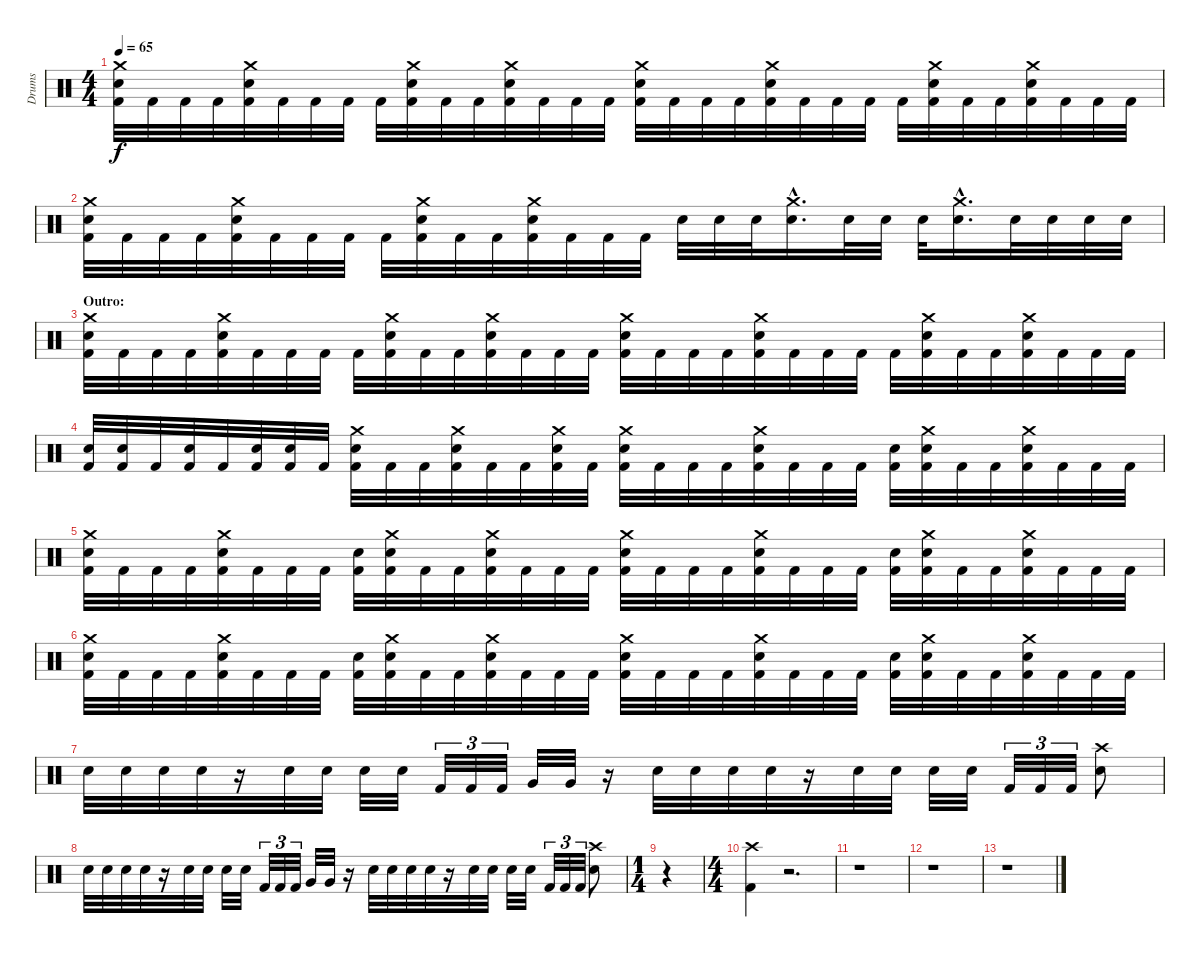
\track ("Drums" "Drums") {instrument percussion}
\staff {score}
\articulation defaults
\ts (4 4)
\tempo 65
\clef neutral
\ks c
("Crash medium (hit)" "Snare (hit) 2" "Kick (hit) 2").32{dy f} "Kick (hit) 2".32 "Kick (hit) 2".32 "Kick (hit) 2".32 ("Crash medium (hit)" "Snare (hit) 2" "Kick (hit) 2").32 "Kick (hit) 2".32 "Kick (hit) 2".32 "Kick (hit) 2".32 "Kick (hit) 2".32 ("Crash medium (hit)" "Snare (hit) 2" "Kick (hit) 2").32 "Kick (hit) 2".32 "Kick (hit) 2".32 ("Crash medium (hit)" "Snare (hit) 2" "Kick (hit) 2").32 "Kick (hit) 2".32 "Kick (hit) 2".32 "Kick (hit) 2".32 ("Crash medium (hit)" "Snare (hit) 2" "Kick (hit) 2").32 "Kick (hit) 2".32 "Kick (hit) 2".32 "Kick (hit) 2".32 ("Crash medium (hit)" "Snare (hit) 2" "Kick (hit) 2").32 "Kick (hit) 2".32 "Kick (hit) 2".32 "Kick (hit) 2".32 "Kick (hit) 2".32 ("Crash medium (hit)" "Snare (hit) 2" "Kick (hit) 2").32 "Kick (hit) 2".32 "Kick (hit) 2".32 ("Crash medium (hit)" "Snare (hit) 2" "Kick (hit) 2").32 "Kick (hit) 2".32 "Kick (hit) 2".32 "Kick (hit) 2".32 |
("Crash medium (hit)" "Snare (hit) 2" "Kick (hit) 2").32 "Kick (hit) 2".32 "Kick (hit) 2".32 "Kick (hit) 2".32 ("Crash medium (hit)" "Snare (hit) 2" "Kick (hit) 2").32 "Kick (hit) 2".32 "Kick (hit) 2".32 "Kick (hit) 2".32 "Kick (hit) 2".32 ("Crash medium (hit)" "Snare (hit) 2" "Kick (hit) 2").32 "Kick (hit) 2".32 "Kick (hit) 2".32 ("Crash medium (hit)" "Snare (hit) 2" "Kick (hit) 2").32 "Kick (hit) 2".32 "Kick (hit) 2".32 "Kick (hit) 2".32 "Snare (hit) 2".32 "Snare (hit) 2".32 "Snare (hit) 2".32 ("Crash medium (hit)"{hac} "Snare (hit) 2"{hac}).16{d} "Snare (hit) 2".32 "Snare (hit) 2".32 "Snare (hit) 2".32 ("Crash medium (hit)"{hac} "Snare (hit) 2"{hac}).16{d} "Snare (hit) 2".32 "Snare (hit) 2".32 "Snare (hit) 2".32 "Snare (hit) 2".32 |
\section ("" "Outro:")
("Crash medium (hit)" "Snare (hit) 2" "Kick (hit) 2").32 "Kick (hit) 2".32 "Kick (hit) 2".32 "Kick (hit) 2".32 ("Crash medium (hit)" "Snare (hit) 2" "Kick (hit) 2").32 "Kick (hit) 2".32 "Kick (hit) 2".32 "Kick (hit) 2".32 "Kick (hit) 2".32 ("Crash medium (hit)" "Snare (hit) 2" "Kick (hit) 2").32 "Kick (hit) 2".32 "Kick (hit) 2".32 ("Crash medium (hit)" "Snare (hit) 2" "Kick (hit) 2").32 "Kick (hit) 2".32 "Kick (hit) 2".32 "Kick (hit) 2".32 ("Crash medium (hit)" "Snare (hit) 2" "Kick (hit) 2").32 "Kick (hit) 2".32 "Kick (hit) 2".32 "Kick (hit) 2".32 ("Crash medium (hit)" "Snare (hit) 2" "Kick (hit) 2").32 "Kick (hit) 2".32 "Kick (hit) 2".32 "Kick (hit) 2".32 "Kick (hit) 2".32 ("Crash medium (hit)" "Snare (hit) 2" "Kick (hit) 2").32 "Kick (hit) 2".32 "Kick (hit) 2".32 ("Crash medium (hit)" "Snare (hit) 2" "Kick (hit) 2").32 "Kick (hit) 2".32 "Kick (hit) 2".32 "Kick (hit) 2".32 |
("Snare (hit) 2" "Kick (hit) 2").32 ("Snare (hit) 2" "Kick (hit) 2").32 "Kick (hit) 2".32 ("Snare (hit) 2" "Kick (hit) 2").32 "Kick (hit) 2".32 ("Snare (hit) 2" "Kick (hit) 2").32 ("Snare (hit) 2" "Kick (hit) 2").32 "Kick (hit) 2".32 ("Crash medium (hit)" "Snare (hit) 2" "Kick (hit) 2").32 "Kick (hit) 2".32 "Kick (hit) 2".32 ("Crash medium (hit)" "Snare (hit) 2" "Kick (hit) 2").32 "Kick (hit) 2".32 "Kick (hit) 2".32 ("Crash medium (hit)" "Snare (hit) 2" "Kick (hit) 2").32 "Kick (hit) 2".32 ("Crash medium (hit)" "Snare (hit) 2" "Kick (hit) 2").32 "Kick (hit) 2".32 "Kick (hit) 2".32 "Kick (hit) 2".32 ("Crash medium (hit)" "Snare (hit) 2" "Kick (hit) 2").32 "Kick (hit) 2".32 "Kick (hit) 2".32 "Kick (hit) 2".32 ("Snare (hit) 2" "Kick (hit) 2").32 ("Crash medium (hit)" "Snare (hit) 2" "Kick (hit) 2").32 "Kick (hit) 2".32 "Kick (hit) 2".32 ("Crash medium (hit)" "Snare (hit) 2" "Kick (hit) 2").32 "Kick (hit) 2".32 "Kick (hit) 2".32 "Kick (hit) 2".32 |
("Crash medium (hit)" "Snare (hit) 2" "Kick (hit) 2").32 "Kick (hit) 2".32 "Kick (hit) 2".32 "Kick (hit) 2".32 ("Crash medium (hit)" "Snare (hit) 2" "Kick (hit) 2").32 "Kick (hit) 2".32 "Kick (hit) 2".32 "Kick (hit) 2".32 ("Snare (hit) 2" "Kick (hit) 2").32 ("Crash medium (hit)" "Snare (hit) 2" "Kick (hit) 2").32 "Kick (hit) 2".32 "Kick (hit) 2".32 ("Crash medium (hit)" "Snare (hit) 2" "Kick (hit) 2").32 "Kick (hit) 2".32 "Kick (hit) 2".32 "Kick (hit) 2".32 ("Crash medium (hit)" "Snare (hit) 2" "Kick (hit) 2").32 "Kick (hit) 2".32 "Kick (hit) 2".32 "Kick (hit) 2".32 ("Crash medium (hit)" "Snare (hit) 2" "Kick (hit) 2").32 "Kick (hit) 2".32 "Kick (hit) 2".32 "Kick (hit) 2".32 ("Snare (hit) 2" "Kick (hit) 2").32 ("Crash medium (hit)" "Snare (hit) 2" "Kick (hit) 2").32 "Kick (hit) 2".32 "Kick (hit) 2".32 ("Crash medium (hit)" "Snare (hit) 2" "Kick (hit) 2").32 "Kick (hit) 2".32 "Kick (hit) 2".32 "Kick (hit) 2".32 |
("Crash medium (hit)" "Snare (hit) 2" "Kick (hit) 2").32 "Kick (hit) 2".32 "Kick (hit) 2".32 "Kick (hit) 2".32 ("Crash medium (hit)" "Snare (hit) 2" "Kick (hit) 2").32 "Kick (hit) 2".32 "Kick (hit) 2".32 "Kick (hit) 2".32 ("Snare (hit) 2" "Kick (hit) 2").32 ("Crash medium (hit)" "Snare (hit) 2" "Kick (hit) 2").32 "Kick (hit) 2".32 "Kick (hit) 2".32 ("Crash medium (hit)" "Snare (hit) 2" "Kick (hit) 2").32 "Kick (hit) 2".32 "Kick (hit) 2".32 "Kick (hit) 2".32 ("Crash medium (hit)" "Snare (hit) 2" "Kick (hit) 2").32 "Kick (hit) 2".32 "Kick (hit) 2".32 "Kick (hit) 2".32 ("Crash medium (hit)" "Snare (hit) 2" "Kick (hit) 2").32 "Kick (hit) 2".32 "Kick (hit) 2".32 "Kick (hit) 2".32 ("Snare (hit) 2" "Kick (hit) 2").32 ("Crash medium (hit)" "Snare (hit) 2" "Kick (hit) 2").32 "Kick (hit) 2".32 "Kick (hit) 2".32 ("Crash medium (hit)" "Snare (hit) 2" "Kick (hit) 2").32 "Kick (hit) 2".32 "Kick (hit) 2".32 "Kick (hit) 2".32 |
"Snare (hit) 2".32 "Snare (hit) 2".32 "Snare (hit) 2".32 "Snare (hit) 2".32 r.16 "Snare (hit) 2".32 "Snare (hit) 2".32 "Snare (hit) 2".32 "Snare (hit) 2".32 "Kick (hit) 2".32{tu (3 2)} "Kick (hit) 2".32{tu (3 2)} "Kick (hit) 2".32{tu (3 2)} "Very Low Tom (hit)".32 "Very Low Tom (hit)".32 r.16 "Snare (hit) 2".32 "Snare (hit) 2".32 "Snare (hit) 2".32 "Snare (hit) 2".32 r.16 "Snare (hit) 2".32 "Snare (hit) 2".32 "Snare (hit) 2".32 "Snare (hit) 2".32 "Kick (hit) 2".32{tu (3 2)} "Kick (hit) 2".32{tu (3 2)} "Kick (hit) 2".32{tu (3 2)} ("Crash high (hit)" "Snare (hit) 2").8 |
"Snare (hit) 2".32 "Snare (hit) 2".32 "Snare (hit) 2".32 "Snare (hit) 2".32 r.16 "Snare (hit) 2".32 "Snare (hit) 2".32 "Snare (hit) 2".32 "Snare (hit) 2".32 "Kick (hit) 2".32{tu (3 2)} "Kick (hit) 2".32{tu (3 2)} "Kick (hit) 2".32{tu (3 2)} "Very Low Tom (hit)".32 "Very Low Tom (hit)".32 r.16 "Snare (hit) 2".32 "Snare (hit) 2".32 "Snare (hit) 2".32 "Snare (hit) 2".32 r.16 "Snare (hit) 2".32 "Snare (hit) 2".32 "Snare (hit) 2".32 "Snare (hit) 2".32 "Kick (hit) 2".32{tu (3 2)} "Kick (hit) 2".32{tu (3 2)} "Kick (hit) 2".32{tu (3 2)} ("Crash high (hit)" "Snare (hit) 2").8 |
\ts (1 4)
r.4 |
\ts (4 4)
("Crash high (hit)" "Kick (hit) 2").4 r.2{d} |
r.1 |
r.1 |
r.1
